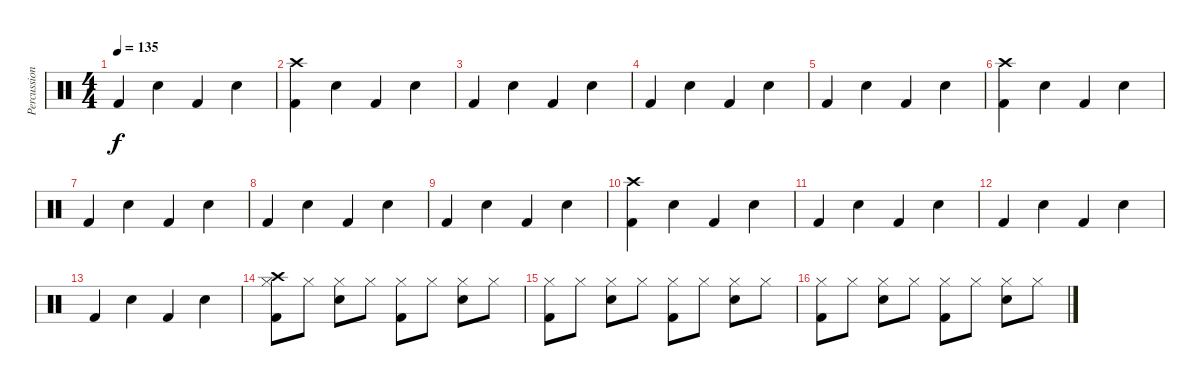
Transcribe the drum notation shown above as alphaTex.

\track ("Percussion" "Percussion") {instrument percussion}
\staff {score}
\articulation defaults
\ts (4 4)
\tempo 135
\clef neutral
\ks c "Kick (hit) 2".4{dy f} "Snare (hit) 2".4 "Kick (hit) 2".4 "Snare (hit) 2".4
|
("Crash high (hit)" "Kick (hit) 2").4 "Snare (hit) 2".4 "Kick (hit) 2".4 "Snare (hit) 2".4 |
"Kick (hit) 2".4 "Snare (hit) 2".4 "Kick (hit) 2".4 "Snare (hit) 2".4 |
"Kick (hit) 2".4 "Snare (hit) 2".4 "Kick (hit) 2".4 "Snare (hit) 2".4 |
"Kick (hit) 2".4 "Snare (hit) 2".4 "Kick (hit) 2".4 "Snare (hit) 2".4 |
("Crash high (hit)" "Kick (hit) 2").4 "Snare (hit) 2".4 "Kick (hit) 2".4 "Snare (hit) 2".4 |
"Kick (hit) 2".4 "Snare (hit) 2".4 "Kick (hit) 2".4 "Snare (hit) 2".4 |
"Kick (hit) 2".4 "Snare (hit) 2".4 "Kick (hit) 2".4 "Snare (hit) 2".4 |
"Kick (hit) 2".4 "Snare (hit) 2".4 "Kick (hit) 2".4 "Snare (hit) 2".4 |
("Crash high (hit)" "Kick (hit) 2").4 "Snare (hit) 2".4 "Kick (hit) 2".4 "Snare (hit) 2".4 |
"Kick (hit) 2".4 "Snare (hit) 2".4 "Kick (hit) 2".4 "Snare (hit) 2".4 |
"Kick (hit) 2".4 "Snare (hit) 2".4 "Kick (hit) 2".4 "Snare (hit) 2".4 |
"Kick (hit) 2".4 "Snare (hit) 2".4 "Kick (hit) 2".4 "Snare (hit) 2".4 |
("Crash high (hit)" "Hi-Hat (closed)" "Kick (hit) 2").8 "Hi-Hat (closed)".8 ("Hi-Hat (closed)" "Snare (hit) 2").8 "Hi-Hat (closed)".8 ("Hi-Hat (closed)" "Kick (hit) 2").8 "Hi-Hat (closed)".8 ("Hi-Hat (closed)" "Snare (hit) 2").8 "Hi-Hat (closed)".8 |
("Hi-Hat (closed)" "Kick (hit) 2").8 "Hi-Hat (closed)".8 ("Hi-Hat (closed)" "Snare (hit) 2").8 "Hi-Hat (closed)".8 ("Hi-Hat (closed)" "Kick (hit) 2").8 "Hi-Hat (closed)".8 ("Hi-Hat (closed)" "Snare (hit) 2").8 "Hi-Hat (closed)".8 |
("Hi-Hat (closed)" "Kick (hit) 2").8 "Hi-Hat (closed)".8 ("Hi-Hat (closed)" "Snare (hit) 2").8 "Hi-Hat (closed)".8 ("Hi-Hat (closed)" "Kick (hit) 2").8 "Hi-Hat (closed)".8 ("Hi-Hat (closed)" "Snare (hit) 2").8 "Hi-Hat (closed)".8
